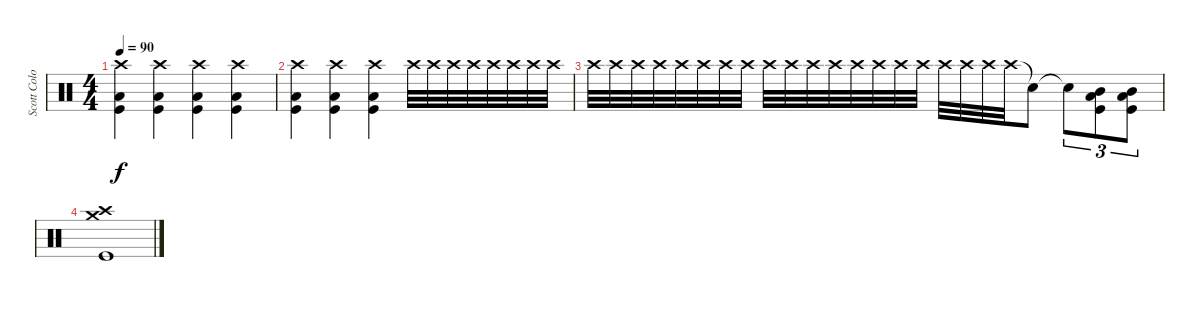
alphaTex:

\track ("Scott Colombus" "Scott Colo") {instrument percussion}
\staff {score}
\articulation defaults
\ts (4 4)
\tempo 90
\clef neutral
\ks c
("Crash high (hit)" "Low Tom (hit)" "Kick (hit)").4{dy f} ("Crash high (hit)" "Low Tom (hit)" "Kick (hit)").4 ("Crash high (hit)" "Low Tom (hit)" "Kick (hit)").4 ("Crash high (hit)" "Low Tom (hit)" "Kick (hit)").4 |
("Crash high (hit)" "Low Tom (hit)" "Kick (hit)").4 ("Crash high (hit)" "Low Tom (hit)" "Kick (hit)").4 ("Crash high (hit)" "Low Tom (hit)" "Kick (hit)").4 "Crash high (hit)".32 "Crash high (hit)".32 "Crash high (hit)".32 "Crash high (hit)".32 "Crash high (hit)".32 "Crash high (hit)".32 "Crash high (hit)".32 "Crash high (hit)".32 |
"Crash high (hit)".32 "Crash high (hit)".32 "Crash high (hit)".32 "Crash high (hit)".32 "Crash high (hit)".32 "Crash high (hit)".32 "Crash high (hit)".32 "Crash high (hit)".32 "Crash high (hit)".32 "Crash high (hit)".32 "Crash high (hit)".32 "Crash high (hit)".32 "Crash high (hit)".32 "Crash high (hit)".32 "Crash high (hit)".32 "Crash high (hit)".32 "Crash high (hit)".32 "Crash high (hit)".32 "Crash high (hit)".32 "Crash high (hit)".32 "Snare (hit)"{t}.8 "Snare (hit)"{t}.8{tu (3 2)} ("Mid Tom (hit)" "Low Tom (hit)" "Kick (hit)").8{tu (3 2)} ("Mid Tom (hit)" "Low Tom (hit)" "Kick (hit)").8{tu (3 2)} |
("Crash high (hit)" "Crash medium (hit)" "Kick (hit)").1
